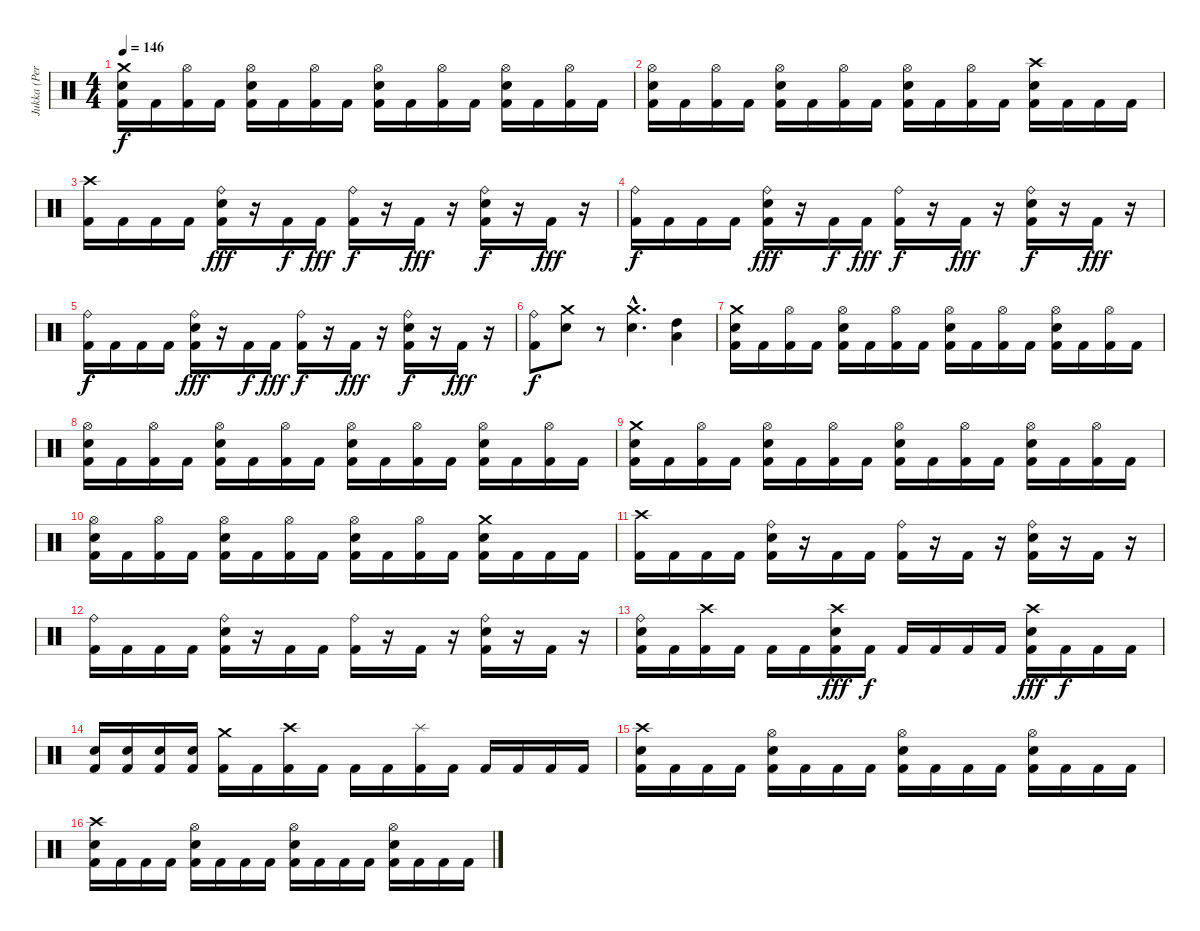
\track ("Jukka (Percussion)" "Jukka (Per") {instrument percussion}
\staff {score}
\articulation defaults
\ts (4 4)
\tempo 146
\clef neutral
\ks c
("Crash medium (hit)" "Snare (hit) 2" "Kick (hit) 2").16{dy f} "Kick (hit) 2".16 ("Hi-Hat (open)" "Kick (hit) 2").16 "Kick (hit) 2".16 ("Hi-Hat (open)" "Snare (hit) 2" "Kick (hit) 2").16 "Kick (hit) 2".16 ("Hi-Hat (open)" "Kick (hit) 2").16 "Kick (hit) 2".16 ("Hi-Hat (open)" "Snare (hit) 2" "Kick (hit) 2").16 "Kick (hit) 2".16 ("Hi-Hat (open)" "Kick (hit) 2").16 "Kick (hit) 2".16 ("Hi-Hat (open)" "Snare (hit) 2" "Kick (hit) 2").16 "Kick (hit) 2".16 ("Hi-Hat (open)" "Kick (hit) 2").16 "Kick (hit) 2".16 |
("Hi-Hat (open)" "Snare (hit) 2" "Kick (hit) 2").16 "Kick (hit) 2".16 ("Hi-Hat (open)" "Kick (hit) 2").16 "Kick (hit) 2".16 ("Hi-Hat (open)" "Snare (hit) 2" "Kick (hit) 2").16 "Kick (hit) 2".16 ("Hi-Hat (open)" "Kick (hit) 2").16 "Kick (hit) 2".16 ("Hi-Hat (open)" "Snare (hit) 2" "Kick (hit) 2").16 "Kick (hit) 2".16 ("Hi-Hat (open)" "Kick (hit) 2").16 "Kick (hit) 2".16 ("Crash high (hit)" "Snare (hit) 2" "Kick (hit) 2").16 "Kick (hit) 2".16 "Kick (hit) 2".16 "Kick (hit) 2".16 |
("Crash high (hit)" "Kick (hit) 2").16 "Kick (hit) 2".16 "Kick (hit) 2".16 "Kick (hit) 2".16 ("Ride (bell)" "Snare (hit) 2" "Kick (hit) 2").16{dy fff} r.16 "Kick (hit) 2".16{dy f} "Kick (hit) 2".16{dy fff} ("Ride (bell)" "Kick (hit) 2").16{dy f} r.16 "Kick (hit) 2".16{dy fff} r.16 ("Ride (bell)" "Snare (hit) 2" "Kick (hit) 2").16{dy f} r.16 "Kick (hit) 2".16{dy fff} r.16 |
("Ride (bell)" "Kick (hit) 2").16{dy f} "Kick (hit) 2".16 "Kick (hit) 2".16 "Kick (hit) 2".16 ("Ride (bell)" "Snare (hit) 2" "Kick (hit) 2").16{dy fff} r.16 "Kick (hit) 2".16{dy f} "Kick (hit) 2".16{dy fff} ("Ride (bell)" "Kick (hit) 2").16{dy f} r.16 "Kick (hit) 2".16{dy fff} r.16 ("Ride (bell)" "Snare (hit) 2" "Kick (hit) 2").16{dy f} r.16 "Kick (hit) 2".16{dy fff} r.16 |
("Ride (bell)" "Kick (hit) 2").16{dy f} "Kick (hit) 2".16 "Kick (hit) 2".16 "Kick (hit) 2".16 ("Ride (bell)" "Snare (hit) 2" "Kick (hit) 2").16{dy fff} r.16 "Kick (hit) 2".16{dy f} "Kick (hit) 2".16{dy fff} ("Ride (bell)" "Kick (hit) 2").16{dy f} r.16 "Kick (hit) 2".16{dy fff} r.16 ("Ride (bell)" "Snare (hit) 2" "Kick (hit) 2").16{dy f} r.16 "Kick (hit) 2".16{dy fff} r.16 |
("Ride (bell)" "Kick (hit) 2").8{dy f} ("Crash medium (hit)" "Snare (hit) 2").8 r.8 ("Crash medium (hit)"{hac} "Snare (hit) 2"{hac}).4{d} ("High Tom (hit)" "Low Tom (hit)").4 |
("Crash medium (hit)" "Snare (hit) 2" "Kick (hit) 2").16 "Kick (hit) 2".16 ("Hi-Hat (open)" "Kick (hit) 2").16 "Kick (hit) 2".16 ("Hi-Hat (open)" "Snare (hit) 2" "Kick (hit) 2").16 "Kick (hit) 2".16 ("Hi-Hat (open)" "Kick (hit) 2").16 "Kick (hit) 2".16 ("Hi-Hat (open)" "Snare (hit) 2" "Kick (hit) 2").16 "Kick (hit) 2".16 ("Hi-Hat (open)" "Kick (hit) 2").16 "Kick (hit) 2".16 ("Hi-Hat (open)" "Snare (hit) 2" "Kick (hit) 2").16 "Kick (hit) 2".16 ("Hi-Hat (open)" "Kick (hit) 2").16 "Kick (hit) 2".16 |
("Hi-Hat (open)" "Snare (hit) 2" "Kick (hit) 2").16 "Kick (hit) 2".16 ("Hi-Hat (open)" "Kick (hit) 2").16 "Kick (hit) 2".16 ("Hi-Hat (open)" "Snare (hit) 2" "Kick (hit) 2").16 "Kick (hit) 2".16 ("Hi-Hat (open)" "Kick (hit) 2").16 "Kick (hit) 2".16 ("Hi-Hat (open)" "Snare (hit) 2" "Kick (hit) 2").16 "Kick (hit) 2".16 ("Hi-Hat (open)" "Kick (hit) 2").16 "Kick (hit) 2".16 ("Hi-Hat (open)" "Snare (hit) 2" "Kick (hit) 2").16 "Kick (hit) 2".16 ("Hi-Hat (open)" "Kick (hit) 2").16 "Kick (hit) 2".16 |
("Crash medium (hit)" "Snare (hit) 2" "Kick (hit) 2").16 "Kick (hit) 2".16 ("Hi-Hat (open)" "Kick (hit) 2").16 "Kick (hit) 2".16 ("Hi-Hat (open)" "Snare (hit) 2" "Kick (hit) 2").16 "Kick (hit) 2".16 ("Hi-Hat (open)" "Kick (hit) 2").16 "Kick (hit) 2".16 ("Hi-Hat (open)" "Snare (hit) 2" "Kick (hit) 2").16 "Kick (hit) 2".16 ("Hi-Hat (open)" "Kick (hit) 2").16 "Kick (hit) 2".16 ("Hi-Hat (open)" "Snare (hit) 2" "Kick (hit) 2").16 "Kick (hit) 2".16 ("Hi-Hat (open)" "Kick (hit) 2").16 "Kick (hit) 2".16 |
("Hi-Hat (open)" "Snare (hit) 2" "Kick (hit) 2").16 "Kick (hit) 2".16 ("Hi-Hat (open)" "Kick (hit) 2").16 "Kick (hit) 2".16 ("Hi-Hat (open)" "Snare (hit) 2" "Kick (hit) 2").16 "Kick (hit) 2".16 ("Hi-Hat (open)" "Kick (hit) 2").16 "Kick (hit) 2".16 ("Hi-Hat (open)" "Snare (hit) 2" "Kick (hit) 2").16 "Kick (hit) 2".16 ("Hi-Hat (open)" "Kick (hit) 2").16 "Kick (hit) 2".16 ("Crash medium (hit)" "Snare (hit) 2" "Kick (hit) 2").16 "Kick (hit) 2".16 "Kick (hit) 2".16 "Kick (hit) 2".16 |
("Crash high (hit)" "Kick (hit) 2").16 "Kick (hit) 2".16 "Kick (hit) 2".16 "Kick (hit) 2".16 ("Ride (bell)" "Snare (hit) 2" "Kick (hit) 2").16 r.16 "Kick (hit) 2".16 "Kick (hit) 2".16 ("Ride (bell)" "Kick (hit) 2").16 r.16 "Kick (hit) 2".16 r.16 ("Ride (bell)" "Snare (hit) 2" "Kick (hit) 2").16 r.16 "Kick (hit) 2".16 r.16 |
("Ride (bell)" "Kick (hit) 2").16 "Kick (hit) 2".16 "Kick (hit) 2".16 "Kick (hit) 2".16 ("Ride (bell)" "Snare (hit) 2" "Kick (hit) 2").16 r.16 "Kick (hit) 2".16 "Kick (hit) 2".16 ("Ride (bell)" "Kick (hit) 2").16 r.16 "Kick (hit) 2".16 r.16 ("Ride (bell)" "Snare (hit) 2" "Kick (hit) 2").16 r.16 "Kick (hit) 2".16 r.16 |
("Ride (bell)" "Snare (hit) 2" "Kick (hit) 2").16 "Kick (hit) 2".16 ("Crash high (hit)" "Kick (hit) 2").16 "Kick (hit) 2".16 "Kick (hit) 2".16 "Kick (hit) 2".16 ("Crash high (hit)" "Snare (hit) 2" "Kick (hit) 2").16{dy fff} "Kick (hit) 2".16{dy f} "Kick (hit) 2".16 "Kick (hit) 2".16 "Kick (hit) 2".16 "Kick (hit) 2".16 ("Crash high (hit)" "Snare (hit) 2" "Kick (hit) 2").16{dy fff} "Kick (hit) 2".16{dy f} "Kick (hit) 2".16 "Kick (hit) 2".16 |
("Snare (hit) 2" "Kick (hit) 2").16 ("Snare (hit) 2" "Kick (hit) 2").16 ("Snare (hit) 2" "Kick (hit) 2").16 ("Snare (hit) 2" "Kick (hit) 2").16 ("Crash medium (hit)" "Kick (hit) 2").16 "Kick (hit) 2".16 ("Crash high (hit)" "Kick (hit) 2").16 "Kick (hit) 2".16 "Kick (hit) 2".16 "Kick (hit) 2".16 ("Splash (hit)" "Kick (hit) 2").16 "Kick (hit) 2".16 "Kick (hit) 2".16 "Kick (hit) 2".16 "Kick (hit) 2".16 "Kick (hit) 2".16 |
("Crash high (hit)" "Snare (hit) 2" "Kick (hit) 2").16 "Kick (hit) 2".16 "Kick (hit) 2".16 "Kick (hit) 2".16 ("Hi-Hat (open)" "Snare (hit) 2" "Kick (hit) 2").16 "Kick (hit) 2".16 "Kick (hit) 2".16 "Kick (hit) 2".16 ("Hi-Hat (open)" "Snare (hit) 2" "Kick (hit) 2").16 "Kick (hit) 2".16 "Kick (hit) 2".16 "Kick (hit) 2".16 ("Hi-Hat (open)" "Snare (hit) 2" "Kick (hit) 2").16 "Kick (hit) 2".16 "Kick (hit) 2".16 "Kick (hit) 2".16 |
("Crash high (hit)" "Snare (hit) 2" "Kick (hit) 2").16 "Kick (hit) 2".16 "Kick (hit) 2".16 "Kick (hit) 2".16 ("Hi-Hat (open)" "Snare (hit) 2" "Kick (hit) 2").16 "Kick (hit) 2".16 "Kick (hit) 2".16 "Kick (hit) 2".16 ("Hi-Hat (open)" "Snare (hit) 2" "Kick (hit) 2").16 "Kick (hit) 2".16 "Kick (hit) 2".16 "Kick (hit) 2".16 ("Hi-Hat (open)" "Snare (hit) 2" "Kick (hit) 2").16 "Kick (hit) 2".16 "Kick (hit) 2".16 "Kick (hit) 2".16
